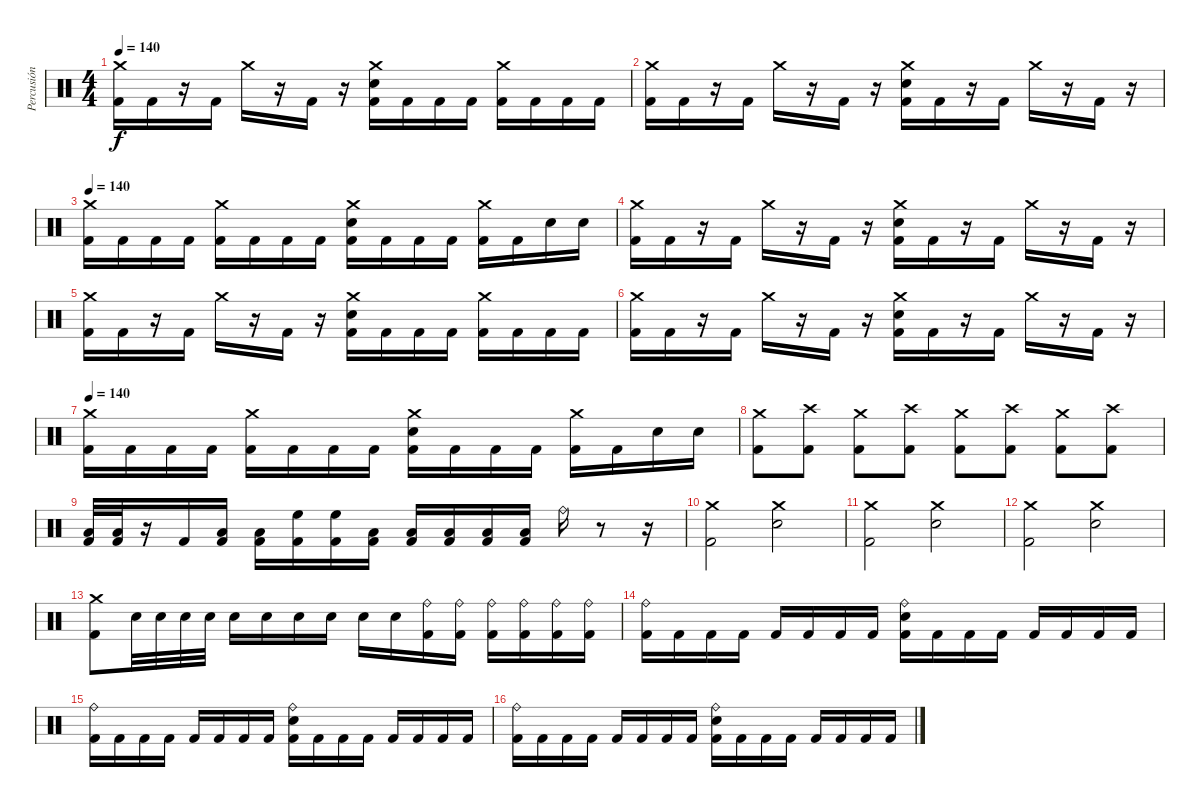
\track ("Percusión" "Percusión") {instrument percussion}
\staff {score}
\articulation defaults
\ts (4 4)
\tempo 140
\clef neutral
\ks c
("Crash medium (hit)" "Kick (hit) 2").16{dy f} "Kick (hit) 2".16 r.16 "Kick (hit) 2".16 "Crash medium (hit)".16 r.16 "Kick (hit) 2".16 r.16 ("Crash medium (hit)" "Electric Snare (hit)" "Kick (hit) 2").16 "Kick (hit) 2".16 "Kick (hit) 2".16 "Kick (hit) 2".16 ("Crash medium (hit)" "Kick (hit) 2").16 "Kick (hit) 2".16 "Kick (hit) 2".16 "Kick (hit) 2".16 |
("Crash medium (hit)" "Kick (hit) 2").16 "Kick (hit) 2".16 r.16 "Kick (hit) 2".16 "Crash medium (hit)".16 r.16 "Kick (hit) 2".16 r.16 ("Crash medium (hit)" "Electric Snare (hit)" "Kick (hit) 2").16 "Kick (hit) 2".16 r.16 "Kick (hit) 2".16 "Crash medium (hit)".16 r.16 "Kick (hit) 2".16 r.16 |
\tempo 140
("Crash medium (hit)" "Kick (hit) 2").16 "Kick (hit) 2".16 "Kick (hit) 2".16 "Kick (hit) 2".16 ("Crash medium (hit)" "Kick (hit) 2").16 "Kick (hit) 2".16 "Kick (hit) 2".16 "Kick (hit) 2".16 ("Crash medium (hit)" "Electric Snare (hit)" "Kick (hit) 2").16 "Kick (hit) 2".16 "Kick (hit) 2".16 "Kick (hit) 2".16 ("Crash medium (hit)" "Kick (hit) 2").16 "Kick (hit) 2".16 "Electric Snare (hit)".16 "Electric Snare (hit)".16 |
("Crash medium (hit)" "Kick (hit) 2").16 "Kick (hit) 2".16 r.16 "Kick (hit) 2".16 "Crash medium (hit)".16 r.16 "Kick (hit) 2".16 r.16 ("Crash medium (hit)" "Electric Snare (hit)" "Kick (hit) 2").16 "Kick (hit) 2".16 r.16 "Kick (hit) 2".16 "Crash medium (hit)".16 r.16 "Kick (hit) 2".16 r.16 |
("Crash medium (hit)" "Kick (hit) 2").16 "Kick (hit) 2".16 r.16 "Kick (hit) 2".16 "Crash medium (hit)".16 r.16 "Kick (hit) 2".16 r.16 ("Crash medium (hit)" "Electric Snare (hit)" "Kick (hit) 2").16 "Kick (hit) 2".16 "Kick (hit) 2".16 "Kick (hit) 2".16 ("Crash medium (hit)" "Kick (hit) 2").16 "Kick (hit) 2".16 "Kick (hit) 2".16 "Kick (hit) 2".16 |
("Crash medium (hit)" "Kick (hit) 2").16 "Kick (hit) 2".16 r.16 "Kick (hit) 2".16 "Crash medium (hit)".16 r.16 "Kick (hit) 2".16 r.16 ("Crash medium (hit)" "Electric Snare (hit)" "Kick (hit) 2").16 "Kick (hit) 2".16 r.16 "Kick (hit) 2".16 "Crash medium (hit)".16 r.16 "Kick (hit) 2".16 r.16 |
\tempo 140
("Crash medium (hit)" "Kick (hit) 2").16 "Kick (hit) 2".16 "Kick (hit) 2".16 "Kick (hit) 2".16 ("Crash medium (hit)" "Kick (hit) 2").16 "Kick (hit) 2".16 "Kick (hit) 2".16 "Kick (hit) 2".16 ("Crash medium (hit)" "Electric Snare (hit)" "Kick (hit) 2").16 "Kick (hit) 2".16 "Kick (hit) 2".16 "Kick (hit) 2".16 ("Crash medium (hit)" "Kick (hit) 2").16 "Kick (hit) 2".16 "Electric Snare (hit)".16 "Electric Snare (hit)".16 |
("Crash medium (hit)" "Kick (hit) 2").8 ("Crash high (hit)" "Kick (hit) 2").8 ("Crash medium (hit)" "Kick (hit) 2").8 ("Crash high (hit)" "Kick (hit) 2").8 ("Crash medium (hit)" "Kick (hit) 2").8 ("Crash high (hit)" "Kick (hit) 2").8 ("Crash medium (hit)" "Kick (hit) 2").8 ("Crash high (hit)" "Kick (hit) 2").8 |
("Low Tom (hit)" "Kick (hit) 2").32 ("Low Tom (hit)" "Kick (hit) 2").32 r.16 "Kick (hit) 2".16 ("Low Tom (hit)" "Kick (hit) 2").16 ("Low Tom (hit)" "Kick (hit) 2").16 ("High Floor Tom (hit)" "Kick (hit) 2").16 ("High Floor Tom (hit)" "Kick (hit) 2").16 ("Low Tom (hit)" "Kick (hit) 2").16 ("Low Tom (hit)" "Kick (hit) 2").16 ("Low Floor Tom (hit)" "Kick (hit) 2").16 ("Low Floor Tom (hit)" "Kick (hit) 2").16 ("Low Floor Tom (hit)" "Kick (hit) 2").16 "Ride (bell)".16 r.8 r.16 |
("Crash medium (hit)" "Kick (hit) 2").2 ("Crash medium (hit)" "Electric Snare (hit)").2 |
("Crash medium (hit)" "Kick (hit) 2").2 ("Crash medium (hit)" "Electric Snare (hit)").2 |
("Crash medium (hit)" "Kick (hit) 2").2 ("Crash medium (hit)" "Electric Snare (hit)").2 |
("Crash medium (hit)" "Kick (hit) 2").8 "Electric Snare (hit)".32 "Electric Snare (hit)".32 "Electric Snare (hit)".32 "Electric Snare (hit)".32 "Electric Snare (hit)".16 "Electric Snare (hit)".16 "Electric Snare (hit)".16 "Electric Snare (hit)".16 "Electric Snare (hit)".16 "Electric Snare (hit)".16 ("Ride (bell)" "Kick (hit) 2").16 ("Ride (bell)" "Kick (hit) 2").16 ("Ride (bell)" "Kick (hit) 2").16 ("Ride (bell)" "Kick (hit) 2").16 ("Ride (bell)" "Kick (hit) 2").16 ("Ride (bell)" "Kick (hit) 2").16 |
("Ride (bell)" "Kick (hit) 2").16 "Kick (hit) 2".16 "Kick (hit) 2".16 "Kick (hit) 2".16 "Kick (hit) 2".16 "Kick (hit) 2".16 "Kick (hit) 2".16 "Kick (hit) 2".16 ("Ride (bell)" "Electric Snare (hit)" "Kick (hit) 2").16 "Kick (hit) 2".16 "Kick (hit) 2".16 "Kick (hit) 2".16 "Kick (hit) 2".16 "Kick (hit) 2".16 "Kick (hit) 2".16 "Kick (hit) 2".16 |
("Ride (bell)" "Kick (hit) 2").16 "Kick (hit) 2".16 "Kick (hit) 2".16 "Kick (hit) 2".16 "Kick (hit) 2".16 "Kick (hit) 2".16 "Kick (hit) 2".16 "Kick (hit) 2".16 ("Ride (bell)" "Electric Snare (hit)" "Kick (hit) 2").16 "Kick (hit) 2".16 "Kick (hit) 2".16 "Kick (hit) 2".16 "Kick (hit) 2".16 "Kick (hit) 2".16 "Kick (hit) 2".16 "Kick (hit) 2".16 |
("Ride (bell)" "Kick (hit) 2").16 "Kick (hit) 2".16 "Kick (hit) 2".16 "Kick (hit) 2".16 "Kick (hit) 2".16 "Kick (hit) 2".16 "Kick (hit) 2".16 "Kick (hit) 2".16 ("Ride (bell)" "Electric Snare (hit)" "Kick (hit) 2").16 "Kick (hit) 2".16 "Kick (hit) 2".16 "Kick (hit) 2".16 "Kick (hit) 2".16 "Kick (hit) 2".16 "Kick (hit) 2".16 "Kick (hit) 2".16
